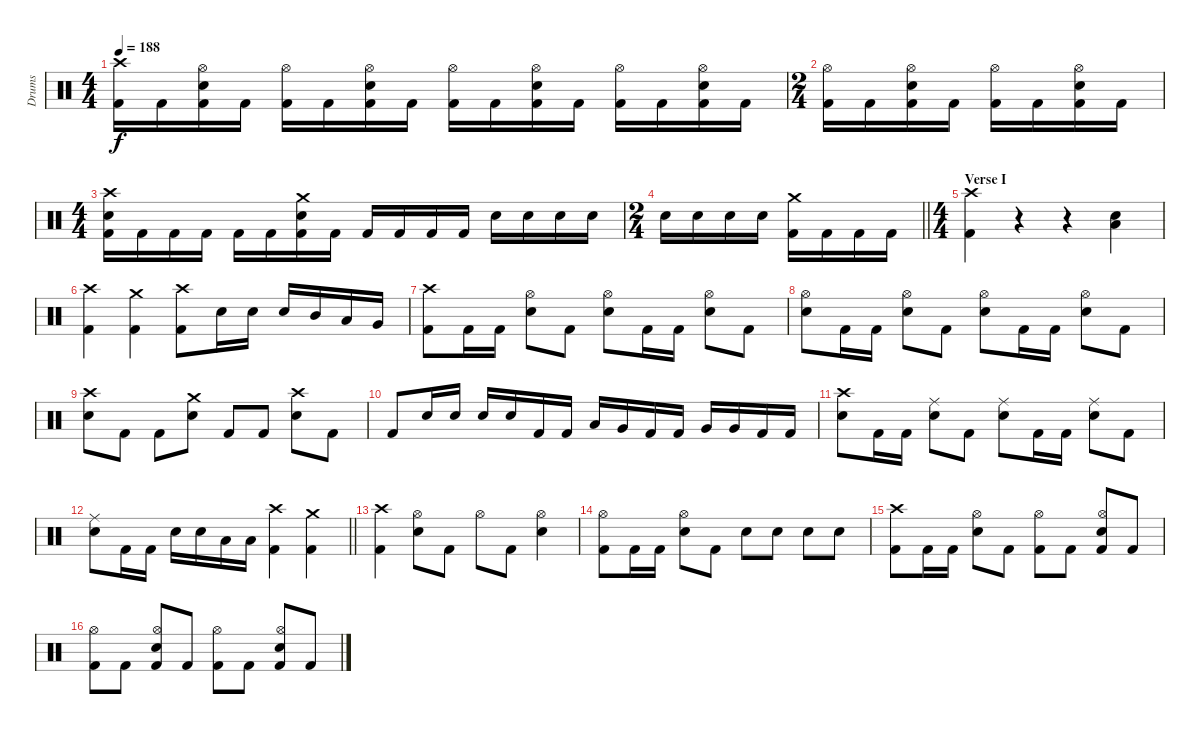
\track ("Drums" "Drums") {instrument percussion}
\staff {score}
\articulation defaults
\ts (4 4)
\tempo 188
\clef neutral
\ks c
("Crash high (hit)" "Kick (hit) 2").16{dy f} "Kick (hit) 2".16 ("Hi-Hat (open)" "Electric Snare (hit)" "Kick (hit) 2").16 "Kick (hit) 2".16 ("Hi-Hat (open)" "Kick (hit) 2").16 "Kick (hit) 2".16 ("Hi-Hat (open)" "Electric Snare (hit)" "Kick (hit) 2").16 "Kick (hit) 2".16 ("Hi-Hat (open)" "Kick (hit) 2").16 "Kick (hit) 2".16 ("Hi-Hat (open)" "Electric Snare (hit)" "Kick (hit) 2").16 "Kick (hit) 2".16 ("Hi-Hat (open)" "Kick (hit) 2").16 "Kick (hit) 2".16 ("Hi-Hat (open)" "Electric Snare (hit)" "Kick (hit) 2").16 "Kick (hit) 2".16 |
\ts (2 4)
("Hi-Hat (open)" "Kick (hit) 2").16 "Kick (hit) 2".16 ("Hi-Hat (open)" "Electric Snare (hit)" "Kick (hit) 2").16 "Kick (hit) 2".16 ("Hi-Hat (open)" "Kick (hit) 2").16 "Kick (hit) 2".16 ("Hi-Hat (open)" "Electric Snare (hit)" "Kick (hit) 2").16 "Kick (hit) 2".16 |
\ts (4 4)
("Crash high (hit)" "Electric Snare (hit)" "Kick (hit) 2").16 "Kick (hit) 2".16 "Kick (hit) 2".16 "Kick (hit) 2".16 "Kick (hit) 2".16 "Kick (hit) 2".16 ("Crash medium (hit)" "Electric Snare (hit)" "Kick (hit) 2").16 "Kick (hit) 2".16 "Kick (hit) 2".16 "Kick (hit) 2".16 "Kick (hit) 2".16 "Kick (hit) 2".16 "Electric Snare (hit)".16 "Electric Snare (hit)".16 "Electric Snare (hit)".16 "Electric Snare (hit)".16 |
\ts (2 4)
\barLineRight lightlight "Electric Snare (hit)".16 "Electric Snare (hit)".16 "Electric Snare (hit)".16 "Electric Snare (hit)".16
("Crash medium (hit)" "Kick (hit) 2").16 "Kick (hit) 2".16 "Kick (hit) 2".16 "Kick (hit) 2".16 |
\ts (4 4)
\section ("" "Verse I")
("Crash high (hit)" "Kick (hit) 2").4 r.4 r.4 ("Electric Snare (hit)" "Low Floor Tom (hit)").4 |
("Crash high (hit)" "Kick (hit) 2").4 ("Crash medium (hit)" "Kick (hit) 2").4 ("Crash high (hit)" "Kick (hit) 2").8 "Electric Snare (hit)".16 "Electric Snare (hit)".16 "Electric Snare (hit)".16 "Mid Tom (hit)".16 "Low Tom (hit)".16 "Very Low Tom (hit)".16 |
("Crash high (hit)" "Kick (hit) 2").8 "Kick (hit) 2".16 "Kick (hit) 2".16 ("Hi-Hat (open)" "Electric Snare (hit)").8 "Kick (hit) 2".8 ("Hi-Hat (open)" "Electric Snare (hit)").8 "Kick (hit) 2".16 "Kick (hit) 2".16 ("Hi-Hat (open)" "Electric Snare (hit)").8 "Kick (hit) 2".8 |
("Hi-Hat (open)" "Electric Snare (hit)").8 "Kick (hit) 2".16 "Kick (hit) 2".16 ("Hi-Hat (open)" "Electric Snare (hit)").8 "Kick (hit) 2".8 ("Hi-Hat (open)" "Electric Snare (hit)").8 "Kick (hit) 2".16 "Kick (hit) 2".16 ("Hi-Hat (open)" "Electric Snare (hit)").8 "Kick (hit) 2".8 |
("Crash high (hit)" "Electric Snare (hit)").8 "Kick (hit) 2".8 "Kick (hit) 2".8 ("Crash medium (hit)" "Electric Snare (hit)").8 "Kick (hit) 2".8 "Kick (hit) 2".8 ("Crash high (hit)" "Electric Snare (hit)").8 "Kick (hit) 2".8 |
"Kick (hit) 2".8 "Electric Snare (hit)".16 "Electric Snare (hit)".16 "Electric Snare (hit)".16 "Electric Snare (hit)".16 "Kick (hit) 2".16 "Kick (hit) 2".16 "Low Tom (hit)".16 "Very Low Tom (hit)".16 "Kick (hit) 2".16 "Kick (hit) 2".16 "Very Low Tom (hit)".16 "Very Low Tom (hit)".16 "Kick (hit) 2".16 "Kick (hit) 2".16 |
("Crash high (hit)" "Electric Snare (hit)").8 "Kick (hit) 2".16 "Kick (hit) 2".16 ("Ride (middle)" "Electric Snare (hit)").8 "Kick (hit) 2".8 ("Ride (middle)" "Electric Snare (hit)").8 "Kick (hit) 2".16 "Kick (hit) 2".16 ("Ride (middle)" "Electric Snare (hit)").8 "Kick (hit) 2".8 |
\barLineRight lightlight
("Ride (middle)" "Electric Snare (hit)").8 "Kick (hit) 2".16 "Kick (hit) 2".16 "Electric Snare (hit)".16 "Electric Snare (hit)".16 "Low Tom (hit)".16 "Low Tom (hit)".16 ("Crash high (hit)" "Kick (hit) 2").4 ("Crash medium (hit)" "Kick (hit) 2").4 |
("Crash high (hit)" "Kick (hit) 2").4 ("Hi-Hat (open)" "Electric Snare (hit)").8 "Kick (hit) 2".8 "Hi-Hat (open)".8 "Kick (hit) 2".8 ("Hi-Hat (open)" "Electric Snare (hit)").4 |
("Hi-Hat (open)" "Kick (hit) 2").8 "Kick (hit) 2".16 "Kick (hit) 2".16 ("Hi-Hat (open)" "Electric Snare (hit)").8 "Kick (hit) 2".8 "Electric Snare (hit)".8 "Electric Snare (hit)".8 "Electric Snare (hit)".8 "Electric Snare (hit)".8 |
("Crash high (hit)" "Kick (hit) 2").8 "Kick (hit) 2".16 "Kick (hit) 2".16 ("Hi-Hat (open)" "Electric Snare (hit)").8 "Kick (hit) 2".8 ("Hi-Hat (open)" "Kick (hit) 2").8 "Kick (hit) 2".8 ("Hi-Hat (open)" "Electric Snare (hit)" "Kick (hit) 2").8 "Kick (hit) 2".8 |
("Hi-Hat (open)" "Kick (hit) 2").8 "Kick (hit) 2".8 ("Hi-Hat (open)" "Electric Snare (hit)" "Kick (hit) 2").8 "Kick (hit) 2".8 ("Hi-Hat (open)" "Kick (hit) 2").8 "Kick (hit) 2".8 ("Hi-Hat (open)" "Electric Snare (hit)" "Kick (hit) 2").8 "Kick (hit) 2".8
